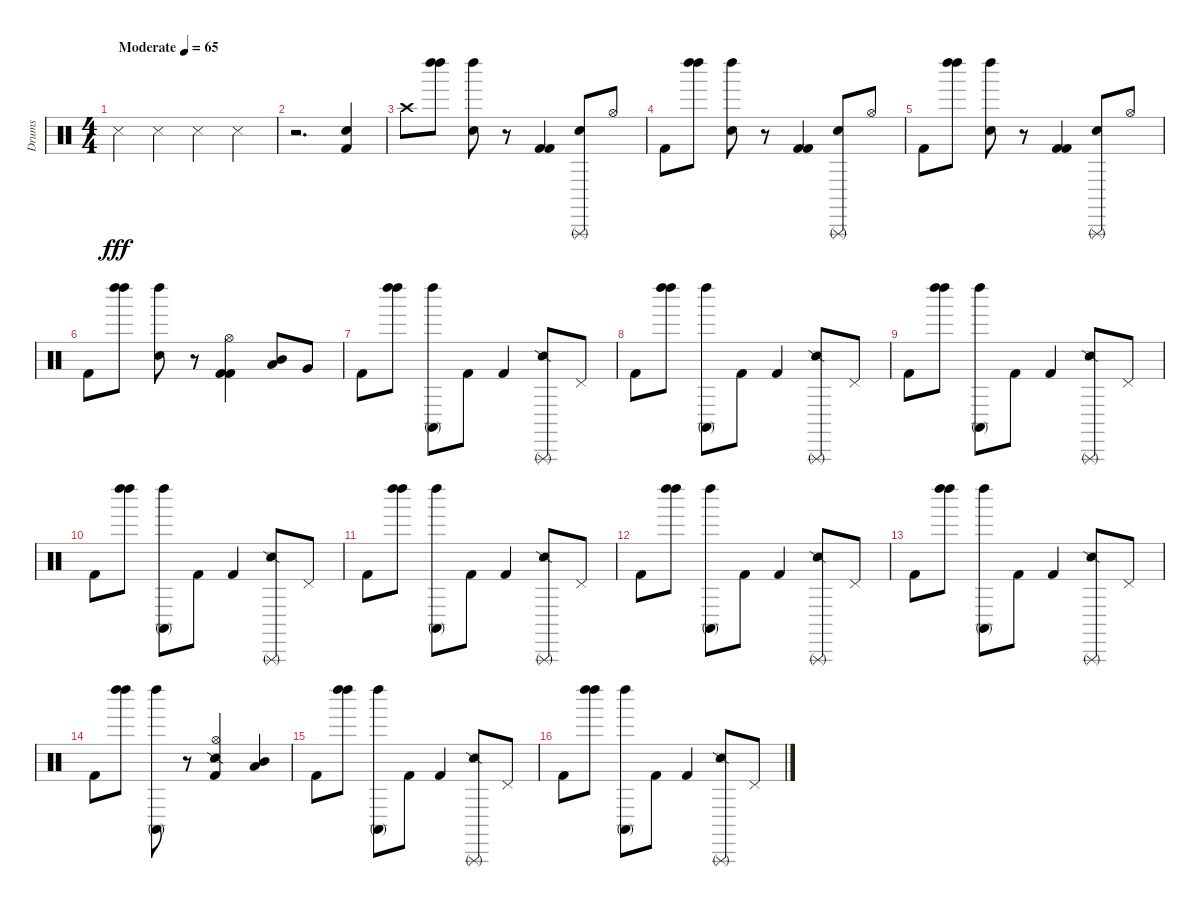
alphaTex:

\track ("Drums" "Drums") {instrument percussion}
\staff {score}
\articulation defaults
\ts (4 4)
\tempo (65 "Moderate")
\clef neutral
\ks c "Snare (side stick) 3".4{dy fff} "Snare (side stick) 3".4 "Snare (side stick) 3".4 "Snare (side stick) 3".4
|
r.2{d} ("Kick (hit) 2" "Electric Snare (hit)").4 |
"Crash high (hit)".8 ("Left Maraca (hit)" "Left Maraca (hit)").8 ("Electric Snare (hit)" "Left Maraca (hit)").8 r.8 ("Kick (hit) 2" "Kick (hit) 2").4 ("Triangle (rnute)" "Electric Snare (hit)").8 "Hi-Hat (open)".8 |
"Kick (hit) 2".8 ("Left Maraca (hit)" "Left Maraca (hit)").8 ("Electric Snare (hit)" "Left Maraca (hit)").8 r.8 ("Kick (hit) 2" "Kick (hit) 2").4 ("Triangle (rnute)" "Electric Snare (hit)").8 "Hi-Hat (open)".8 |
"Kick (hit) 2".8 ("Left Maraca (hit)" "Left Maraca (hit)").8 ("Electric Snare (hit)" "Left Maraca (hit)").8 r.8 ("Kick (hit) 2" "Kick (hit) 2").4 ("Triangle (rnute)" "Electric Snare (hit)").8 "Hi-Hat (open)".8 |
"Kick (hit) 2".8 ("Left Maraca (hit)" "Left Maraca (hit)").8 ("Electric Snare (hit)" "Left Maraca (hit)").8 r.8 ("Kick (hit) 2" "Kick (hit) 2" "Hi-Hat (open)").4 ("Mid Tom (hit)" "Low Tom (hit)").8 "Very Low Tom (hit)".8 |
"Kick (hit) 2".8 ("Left Maraca (hit)" "Left Maraca (hit)").8 ("Conga high (mute)" "Left Maraca (hit)").8 "Kick (hit) 2".8 "Kick (hit) 2".4 ("Triangle (rnute)" "Snare (side stick) 2").8 "Pedal Hi-Hat (hit)".8 |
"Kick (hit) 2".8 ("Left Maraca (hit)" "Left Maraca (hit)").8 ("Conga high (mute)" "Left Maraca (hit)").8 "Kick (hit) 2".8 "Kick (hit) 2".4 ("Triangle (rnute)" "Snare (side stick) 2").8 "Pedal Hi-Hat (hit)".8 |
"Kick (hit) 2".8 ("Left Maraca (hit)" "Left Maraca (hit)").8 ("Conga high (mute)" "Left Maraca (hit)").8 "Kick (hit) 2".8 "Kick (hit) 2".4 ("Triangle (rnute)" "Snare (side stick) 2").8 "Pedal Hi-Hat (hit)".8 |
"Kick (hit) 2".8 ("Left Maraca (hit)" "Left Maraca (hit)").8 ("Conga high (mute)" "Left Maraca (hit)").8 "Kick (hit) 2".8 "Kick (hit) 2".4 ("Triangle (rnute)" "Snare (side stick) 2").8 "Pedal Hi-Hat (hit)".8 |
"Kick (hit) 2".8 ("Left Maraca (hit)" "Left Maraca (hit)").8 ("Conga high (mute)" "Left Maraca (hit)").8 "Kick (hit) 2".8 "Kick (hit) 2".4 ("Triangle (rnute)" "Snare (side stick) 2").8 "Pedal Hi-Hat (hit)".8 |
"Kick (hit) 2".8 ("Left Maraca (hit)" "Left Maraca (hit)").8 ("Conga high (mute)" "Left Maraca (hit)").8 "Kick (hit) 2".8 "Kick (hit) 2".4 ("Triangle (rnute)" "Snare (side stick) 2").8 "Pedal Hi-Hat (hit)".8 |
"Kick (hit) 2".8 ("Left Maraca (hit)" "Left Maraca (hit)").8 ("Conga high (mute)" "Left Maraca (hit)").8 "Kick (hit) 2".8 "Kick (hit) 2".4 ("Triangle (rnute)" "Snare (side stick) 2").8 "Pedal Hi-Hat (hit)".8 |
"Kick (hit) 2".8 ("Left Maraca (hit)" "Left Maraca (hit)").8 ("Conga high (mute)" "Left Maraca (hit)").8 r.8 ("Kick (hit) 2" "Snare (side stick) 2" "Hi-Hat (open)").4 ("Mid Tom (hit)" "Low Tom (hit)").4 |
"Kick (hit) 2".8 ("Left Maraca (hit)" "Left Maraca (hit)").8 ("Conga high (mute)" "Left Maraca (hit)").8 "Kick (hit) 2".8 "Kick (hit) 2".4 ("Triangle (rnute)" "Snare (side stick) 2").8 "Pedal Hi-Hat (hit)".8 |
"Kick (hit) 2".8 ("Left Maraca (hit)" "Left Maraca (hit)").8 ("Conga high (mute)" "Left Maraca (hit)").8 "Kick (hit) 2".8 "Kick (hit) 2".4 ("Triangle (rnute)" "Snare (side stick) 2").8 "Pedal Hi-Hat (hit)".8
